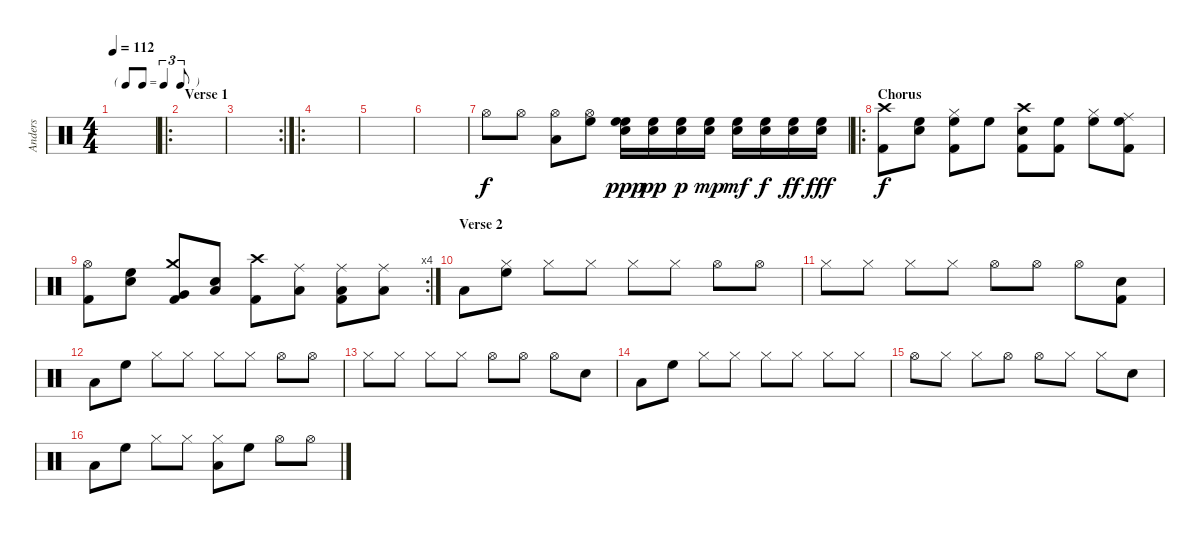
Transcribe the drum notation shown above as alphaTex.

\track ("Anders" "Anders") {instrument percussion}
\staff {score}
\articulation defaults
\ts (4 4)
\tf triplet8th
\tempo 112
\clef neutral
\ks c
|
\ro
\section ("" "Verse 1")
|
\rc 2
|
\ro
|
|
|
"Hi-Hat (open)".8 "Hi-Hat (open)".8 ("Hi-Hat (open)" "Low Tom (hit)").8 ("Hi-Hat (open)" "High Floor Tom (hit)").8 ("Snare (hit) 2" "High Floor Tom (hit)" "High Floor Tom (hit)").16{dy ppp} ("Snare (hit) 2" "High Floor Tom (hit)").16{dy pp} ("Snare (hit) 2" "High Floor Tom (hit)").16{dy p} ("Snare (hit) 2" "High Floor Tom (hit)").16{dy mp} ("Snare (hit) 2" "High Floor Tom (hit)").16{dy mf} ("Snare (hit) 2" "High Floor Tom (hit)").16{dy f} ("Snare (hit) 2" "High Floor Tom (hit)").16{dy ff} ("Snare (hit) 2" "High Floor Tom (hit)").16{dy fff} |
\ro
\section ("" "Chorus")
("Crash high (hit)" "Kick (hit) 2").8{dy f} ("Snare (hit) 2" "High Floor Tom (hit)").8 ("Hi-Hat (closed)" "High Floor Tom (hit)" "Kick (hit) 2").8 "High Floor Tom (hit)".8 ("Crash high (hit)" "Snare (hit) 2" "Kick (hit) 2").8 ("High Floor Tom (hit)" "Kick (hit) 2").8 ("Hi-Hat (closed)" "High Floor Tom (hit)").8 ("Ride (middle)" "High Floor Tom (hit)" "Kick (hit) 2").8 |
\rc 4
("Hi-Hat (open)" "Kick (hit) 2").8 ("High Floor Tom (hit)" "Snare (hit) 2").8 ("Crash medium (hit)" "Very Low Tom (hit)" "Kick (hit) 2").8 ("Snare (hit) 2" "Low Tom (hit)").8 ("Crash high (hit)" "Kick (hit) 2").8 ("Ride (middle)" "Low Floor Tom (hit)").8 ("Ride (middle)" "Low Floor Tom (hit)" "Kick (hit) 2").8 ("Ride (middle)" "Low Floor Tom (hit)").8 |
\section ("" "Verse 2")
"Low Tom (hit)".8 ("Hi-Hat (closed)" "High Floor Tom (hit)").8 "Hi-Hat (closed)".8 "Hi-Hat (closed)".8 "Hi-Hat (closed)".8 "Hi-Hat (closed)".8 "Hi-Hat (open)".8 "Hi-Hat (open)".8 |
"Hi-Hat (closed)".8 "Hi-Hat (closed)".8 "Hi-Hat (closed)".8 "Hi-Hat (closed)".8 "Hi-Hat (open)".8 "Hi-Hat (open)".8 "Hi-Hat (open)".8 ("Snare (hit) 2" "Kick (hit) 2").8 |
"Low Tom (hit)".8 "High Floor Tom (hit)".8 "Hi-Hat (closed)".8 "Hi-Hat (closed)".8 "Hi-Hat (closed)".8 "Hi-Hat (closed)".8 "Hi-Hat (open)".8 "Hi-Hat (open)".8 |
"Hi-Hat (closed)".8 "Hi-Hat (closed)".8 "Hi-Hat (closed)".8 "Hi-Hat (closed)".8 "Hi-Hat (open)".8 "Hi-Hat (open)".8 "Hi-Hat (open)".8 "Snare (hit) 2".8 |
"Low Tom (hit)".8 "High Floor Tom (hit)".8 "Hi-Hat (closed)".8 "Hi-Hat (closed)".8 "Hi-Hat (closed)".8 "Hi-Hat (closed)".8 "Hi-Hat (closed)".8 "Hi-Hat (closed)".8 |
"Hi-Hat (open)".8 "Hi-Hat (closed)".8 "Hi-Hat (closed)".8 "Hi-Hat (open)".8 "Hi-Hat (open)".8 "Hi-Hat (closed)".8 "Hi-Hat (closed)".8 "Snare (hit) 2".8 |
"Low Tom (hit)".8 "High Floor Tom (hit)".8 "Hi-Hat (closed)".8 "Hi-Hat (closed)".8 ("Hi-Hat (closed)" "Low Tom (hit)").8 "High Floor Tom (hit)".8 "Hi-Hat (open)".8 "Hi-Hat (open)".8
